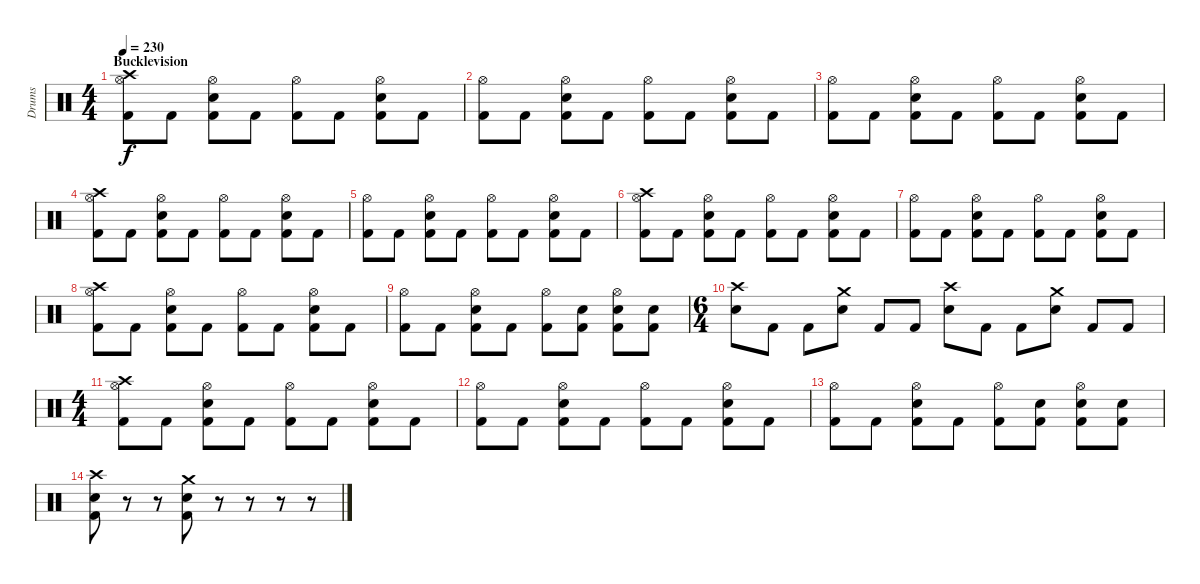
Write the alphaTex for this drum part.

\track ("Drums" "Drums") {instrument percussion}
\staff {score}
\articulation defaults
\ts (4 4)
\section ("" "Bucklevision")
\tempo 230
\clef neutral
\ks c
("Crash high (hit)" "Hi-Hat (open)" "Kick (hit) 2").8{dy f} "Kick (hit) 2".8 ("Hi-Hat (open)" "Snare (hit) 2" "Kick (hit) 2").8 "Kick (hit) 2".8 ("Hi-Hat (open)" "Kick (hit) 2").8 "Kick (hit) 2".8 ("Hi-Hat (open)" "Snare (hit) 2" "Kick (hit) 2").8 "Kick (hit) 2".8 |
("Hi-Hat (open)" "Kick (hit) 2").8 "Kick (hit) 2".8 ("Hi-Hat (open)" "Snare (hit) 2" "Kick (hit) 2").8 "Kick (hit) 2".8 ("Hi-Hat (open)" "Kick (hit) 2").8 "Kick (hit) 2".8 ("Hi-Hat (open)" "Snare (hit) 2" "Kick (hit) 2").8 "Kick (hit) 2".8 |
("Hi-Hat (open)" "Kick (hit) 2").8 "Kick (hit) 2".8 ("Hi-Hat (open)" "Snare (hit) 2" "Kick (hit) 2").8 "Kick (hit) 2".8 ("Hi-Hat (open)" "Kick (hit) 2").8 "Kick (hit) 2".8 ("Hi-Hat (open)" "Snare (hit) 2" "Kick (hit) 2").8 "Kick (hit) 2".8 |
("Crash high (hit)" "Hi-Hat (open)" "Kick (hit) 2").8 "Kick (hit) 2".8 ("Hi-Hat (open)" "Snare (hit) 2" "Kick (hit) 2").8 "Kick (hit) 2".8 ("Hi-Hat (open)" "Kick (hit) 2").8 "Kick (hit) 2".8 ("Hi-Hat (open)" "Snare (hit) 2" "Kick (hit) 2").8 "Kick (hit) 2".8 |
("Hi-Hat (open)" "Kick (hit) 2").8 "Kick (hit) 2".8 ("Hi-Hat (open)" "Snare (hit) 2" "Kick (hit) 2").8 "Kick (hit) 2".8 ("Hi-Hat (open)" "Kick (hit) 2").8 "Kick (hit) 2".8 ("Hi-Hat (open)" "Snare (hit) 2" "Kick (hit) 2").8 "Kick (hit) 2".8 |
("Crash high (hit)" "Hi-Hat (open)" "Kick (hit) 2").8 "Kick (hit) 2".8 ("Hi-Hat (open)" "Snare (hit) 2" "Kick (hit) 2").8 "Kick (hit) 2".8 ("Hi-Hat (open)" "Kick (hit) 2").8 "Kick (hit) 2".8 ("Hi-Hat (open)" "Snare (hit) 2" "Kick (hit) 2").8 "Kick (hit) 2".8 |
("Hi-Hat (open)" "Kick (hit) 2").8 "Kick (hit) 2".8 ("Hi-Hat (open)" "Snare (hit) 2" "Kick (hit) 2").8 "Kick (hit) 2".8 ("Hi-Hat (open)" "Kick (hit) 2").8 "Kick (hit) 2".8 ("Hi-Hat (open)" "Snare (hit) 2" "Kick (hit) 2").8 "Kick (hit) 2".8 |
("Crash high (hit)" "Hi-Hat (open)" "Kick (hit) 2").8 "Kick (hit) 2".8 ("Hi-Hat (open)" "Snare (hit) 2" "Kick (hit) 2").8 "Kick (hit) 2".8 ("Hi-Hat (open)" "Kick (hit) 2").8 "Kick (hit) 2".8 ("Hi-Hat (open)" "Snare (hit) 2" "Kick (hit) 2").8 "Kick (hit) 2".8 |
("Hi-Hat (open)" "Kick (hit) 2").8 "Kick (hit) 2".8 ("Hi-Hat (open)" "Snare (hit) 2" "Kick (hit) 2").8 "Kick (hit) 2".8 ("Hi-Hat (open)" "Kick (hit) 2").8 ("Snare (hit) 2" "Kick (hit) 2").8 ("Hi-Hat (open)" "Snare (hit) 2" "Kick (hit) 2").8 ("Snare (hit) 2" "Kick (hit) 2").8 |
\ts (6 4)
("Crash high (hit)" "Snare (hit) 2").8 "Kick (hit) 2".8 "Kick (hit) 2".8 ("Crash medium (hit)" "Snare (hit) 2").8 "Kick (hit) 2".8 "Kick (hit) 2".8 ("Crash high (hit)" "Snare (hit) 2").8 "Kick (hit) 2".8 "Kick (hit) 2".8 ("Crash medium (hit)" "Snare (hit) 2").8 "Kick (hit) 2".8 "Kick (hit) 2".8 |
\ts (4 4)
("Crash high (hit)" "Hi-Hat (open)" "Kick (hit) 2").8 "Kick (hit) 2".8 ("Hi-Hat (open)" "Snare (hit) 2" "Kick (hit) 2").8 "Kick (hit) 2".8 ("Hi-Hat (open)" "Kick (hit) 2").8 "Kick (hit) 2".8 ("Hi-Hat (open)" "Snare (hit) 2" "Kick (hit) 2").8 "Kick (hit) 2".8 |
("Hi-Hat (open)" "Kick (hit) 2").8 "Kick (hit) 2".8 ("Hi-Hat (open)" "Snare (hit) 2" "Kick (hit) 2").8 "Kick (hit) 2".8 ("Hi-Hat (open)" "Kick (hit) 2").8 "Kick (hit) 2".8 ("Hi-Hat (open)" "Snare (hit) 2" "Kick (hit) 2").8 "Kick (hit) 2".8 |
("Hi-Hat (open)" "Kick (hit) 2").8 "Kick (hit) 2".8 ("Hi-Hat (open)" "Snare (hit) 2" "Kick (hit) 2").8 "Kick (hit) 2".8 ("Hi-Hat (open)" "Kick (hit) 2").8 ("Snare (hit) 2" "Kick (hit) 2").8 ("Hi-Hat (open)" "Snare (hit) 2" "Kick (hit) 2").8 ("Snare (hit) 2" "Kick (hit) 2").8 |
("Crash high (hit)" "Snare (hit) 2" "Kick (hit) 2").8 r.8 r.8 ("Crash medium (hit)" "Snare (hit) 2" "Kick (hit) 2").8 r.8 r.8 r.8 r.8
